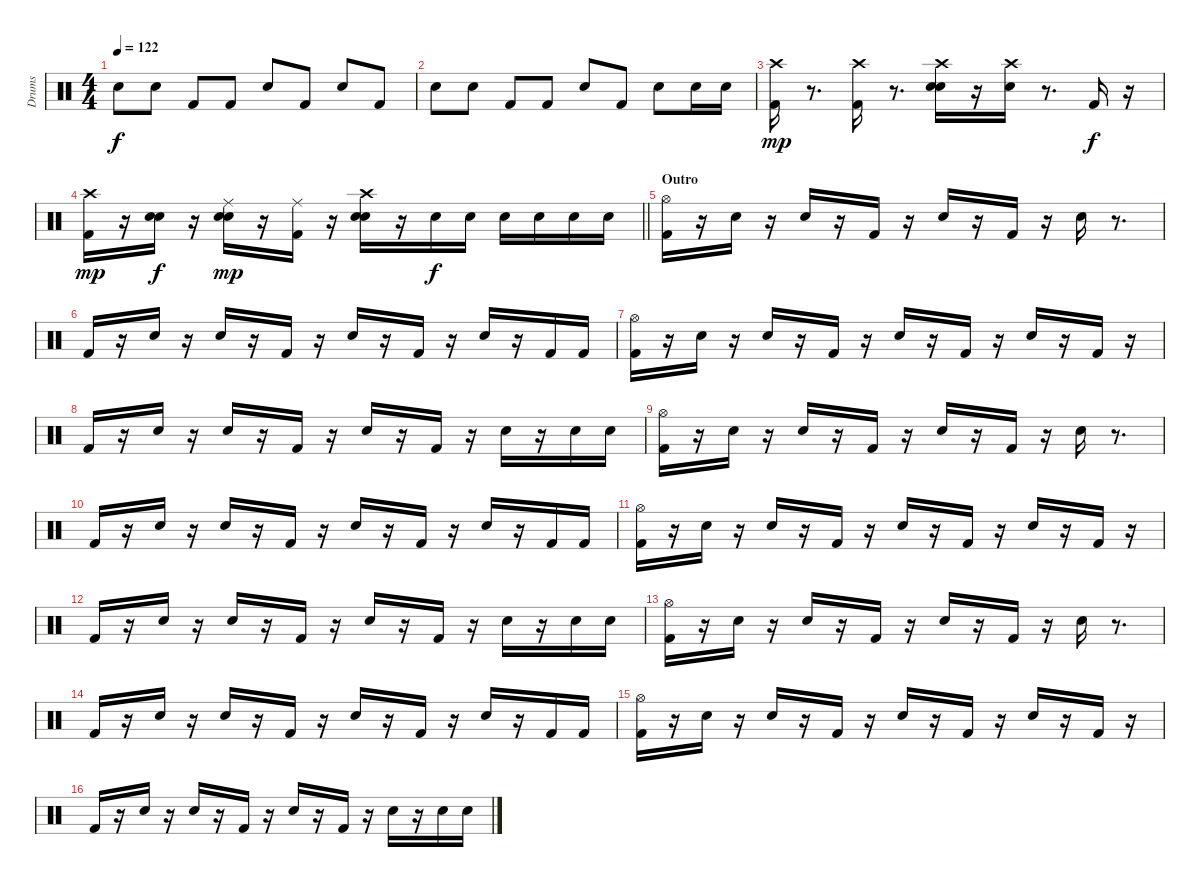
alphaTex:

\track ("Drums" "Drums") {instrument percussion}
\staff
\articulation defaults
\ts (4 4)
\tempo 122
\clef neutral
\ks c "Electric Snare (hit)".8{dy f} "Electric Snare (hit)".8 "Kick (hit) 2".8 "Kick (hit) 2".8 "Electric Snare (hit)".8 "Kick (hit) 2".8 "Electric Snare (hit)".8 "Kick (hit) 2".8
|
"Electric Snare (hit)".8 "Electric Snare (hit)".8 "Kick (hit) 2".8 "Kick (hit) 2".8 "Electric Snare (hit)".8 "Kick (hit) 2".8 "Electric Snare (hit)".8 "Electric Snare (hit)".16 "Electric Snare (hit)".16 |
("Kick (hit) 2" "Crash high (hit)").16{dy mp} r.8{d} ("Crash high (hit)" "Kick (hit) 2").16 r.8{d} ("Crash high (hit)" "Electric Snare (hit)" "Snare (hit) 2").16 r.16 ("Electric Snare (hit)" "Crash high (hit)").16 r.8{d} "Kick (hit) 2".16{dy f} r.16 |
\barLineRight lightlight
("Crash high (hit)" "Kick (hit) 2").16{dy mp} r.16 ("Electric Snare (hit)" "Snare (hit) 2").16{dy f} r.16 ("Ride (middle)" "Electric Snare (hit)" "Snare (hit) 2").16{dy mp} r.16 ("Ride (middle)" "Kick (hit) 2").16 r.16 ("Crash high (hit)" "Electric Snare (hit)" "Snare (hit) 2").16 r.16 "Electric Snare (hit)".16{dy f} "Electric Snare (hit)".16 "Electric Snare (hit)".16 "Electric Snare (hit)".16 "Electric Snare (hit)".16 "Electric Snare (hit)".16 |
\section ("" "Outro")
("Hi-Hat (open)" "Kick (hit) 2").16 r.16 "Snare (hit) 2".16 r.16 "Snare (hit) 2".16 r.16 "Kick (hit) 2".16 r.16 "Snare (hit) 2".16 r.16 "Kick (hit) 2".16 r.16 "Snare (hit) 2".16 r.8{d} |
"Kick (hit) 2".16 r.16 "Snare (hit) 2".16 r.16 "Snare (hit) 2".16 r.16 "Kick (hit) 2".16 r.16 "Snare (hit) 2".16 r.16 "Kick (hit) 2".16 r.16 "Snare (hit) 2".16 r.16 "Kick (hit) 2".16 "Kick (hit) 2".16 |
("Hi-Hat (open)" "Kick (hit) 2").16 r.16 "Snare (hit) 2".16 r.16 "Snare (hit) 2".16 r.16 "Kick (hit) 2".16 r.16 "Snare (hit) 2".16 r.16 "Kick (hit) 2".16 r.16 "Snare (hit) 2".16 r.16 "Kick (hit) 2".16 r.16 |
"Kick (hit) 2".16 r.16 "Snare (hit) 2".16 r.16 "Snare (hit) 2".16 r.16 "Kick (hit) 2".16 r.16 "Snare (hit) 2".16 r.16 "Kick (hit) 2".16 r.16 "Snare (hit) 2".16 r.16 "Snare (hit) 2".16 "Snare (hit) 2".16 |
("Hi-Hat (open)" "Kick (hit) 2").16 r.16 "Snare (hit) 2".16 r.16 "Snare (hit) 2".16 r.16 "Kick (hit) 2".16 r.16 "Snare (hit) 2".16 r.16 "Kick (hit) 2".16 r.16 "Snare (hit) 2".16 r.8{d} |
"Kick (hit) 2".16 r.16 "Snare (hit) 2".16 r.16 "Snare (hit) 2".16 r.16 "Kick (hit) 2".16 r.16 "Snare (hit) 2".16 r.16 "Kick (hit) 2".16 r.16 "Snare (hit) 2".16 r.16 "Kick (hit) 2".16 "Kick (hit) 2".16 |
("Hi-Hat (open)" "Kick (hit) 2").16 r.16 "Snare (hit) 2".16 r.16 "Snare (hit) 2".16 r.16 "Kick (hit) 2".16 r.16 "Snare (hit) 2".16 r.16 "Kick (hit) 2".16 r.16 "Snare (hit) 2".16 r.16 "Kick (hit) 2".16 r.16 |
"Kick (hit) 2".16 r.16 "Snare (hit) 2".16 r.16 "Snare (hit) 2".16 r.16 "Kick (hit) 2".16 r.16 "Snare (hit) 2".16 r.16 "Kick (hit) 2".16 r.16 "Snare (hit) 2".16 r.16 "Snare (hit) 2".16 "Snare (hit) 2".16 |
("Hi-Hat (open)" "Kick (hit) 2").16 r.16 "Snare (hit) 2".16 r.16 "Snare (hit) 2".16 r.16 "Kick (hit) 2".16 r.16 "Snare (hit) 2".16 r.16 "Kick (hit) 2".16 r.16 "Snare (hit) 2".16 r.8{d} |
"Kick (hit) 2".16 r.16 "Snare (hit) 2".16 r.16 "Snare (hit) 2".16 r.16 "Kick (hit) 2".16 r.16 "Snare (hit) 2".16 r.16 "Kick (hit) 2".16 r.16 "Snare (hit) 2".16 r.16 "Kick (hit) 2".16 "Kick (hit) 2".16 |
("Hi-Hat (open)" "Kick (hit) 2").16 r.16 "Snare (hit) 2".16 r.16 "Snare (hit) 2".16 r.16 "Kick (hit) 2".16 r.16 "Snare (hit) 2".16 r.16 "Kick (hit) 2".16 r.16 "Snare (hit) 2".16 r.16 "Kick (hit) 2".16 r.16 |
"Kick (hit) 2".16 r.16 "Snare (hit) 2".16 r.16 "Snare (hit) 2".16 r.16 "Kick (hit) 2".16 r.16 "Snare (hit) 2".16 r.16 "Kick (hit) 2".16 r.16 "Snare (hit) 2".16 r.16 "Snare (hit) 2".16 "Snare (hit) 2".16
